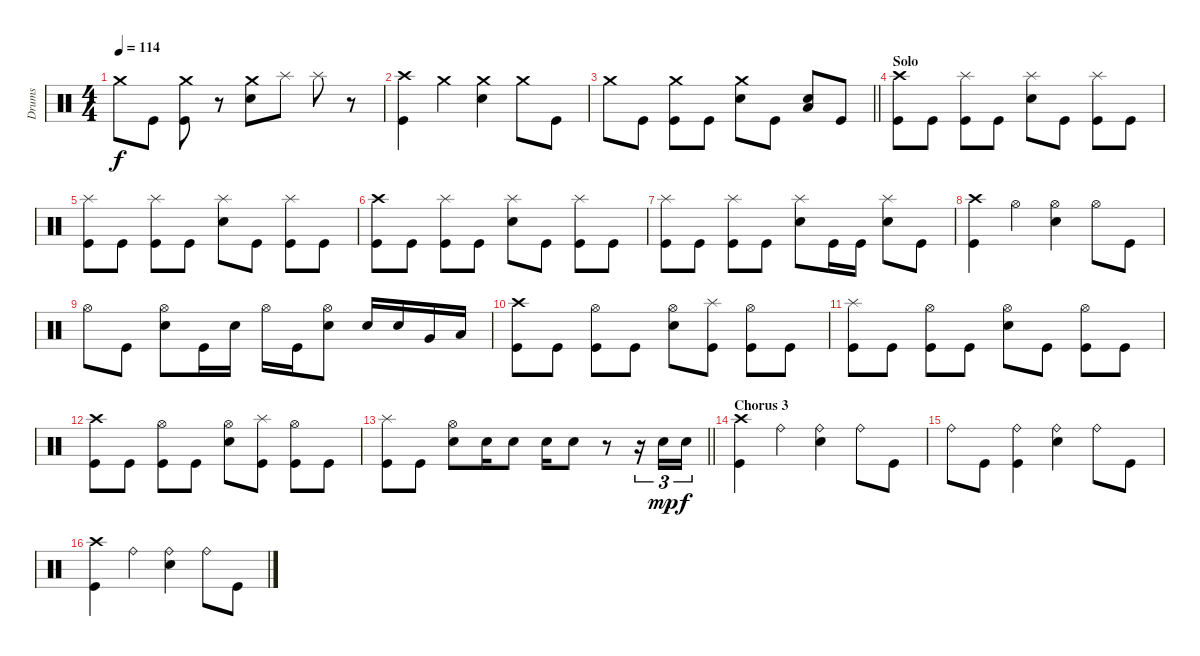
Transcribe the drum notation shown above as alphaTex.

\track ("Drums" "Drums") {instrument percussion}
\staff {score}
\articulation defaults
\ts (4 4)
\tempo 114
\clef neutral
\ks c "Crash medium (hit)".8{dy f} "Kick (hit)".8
("Crash medium (hit)" "Kick (hit)").8 r.8 ("Crash medium (hit)" "Electric Snare (hit)").8 "Splash (hit)".8 "Splash (hit)".8 r.8 |
("Crash high (hit)" "Kick (hit)").4 "Crash medium (hit)".4 ("Crash medium (hit)" "Electric Snare (hit)").4 "Crash medium (hit)".8 "Kick (hit)".8 |
\barLineRight lightlight "Crash medium (hit)".8 "Kick (hit)".8
("Crash medium (hit)" "Kick (hit)").8 "Kick (hit)".8 ("Crash medium (hit)" "Electric Snare (hit)").8 "Kick (hit)".8 ("Electric Snare (hit)" "Low Floor Tom (hit)").8 "Kick (hit)".8 |
\section ("" "Solo")
("Crash high (hit)" "Kick (hit)").8 "Kick (hit)".8 ("Splash (hit)" "Kick (hit)").8 "Kick (hit)".8 ("Splash (hit)" "Electric Snare (hit)").8 "Kick (hit)".8 ("Splash (hit)" "Kick (hit)").8 "Kick (hit)".8 |
("Splash (hit)" "Kick (hit)").8 "Kick (hit)".8 ("Splash (hit)" "Kick (hit)").8 "Kick (hit)".8 ("Splash (hit)" "Electric Snare (hit)").8 "Kick (hit)".8 ("Splash (hit)" "Kick (hit)").8 "Kick (hit)".8 |
("Crash high (hit)" "Kick (hit)").8 "Kick (hit)".8 ("Splash (hit)" "Kick (hit)").8 "Kick (hit)".8 ("Splash (hit)" "Electric Snare (hit)").8 "Kick (hit)".8 ("Splash (hit)" "Kick (hit)").8 "Kick (hit)".8 |
("Splash (hit)" "Kick (hit)").8 "Kick (hit)".8 ("Splash (hit)" "Kick (hit)").8 "Kick (hit)".8 ("Splash (hit)" "Electric Snare (hit)").8 "Kick (hit)".16 "Kick (hit)".16 ("Splash (hit)" "Electric Snare (hit)").8 "Kick (hit)".8 |
("Crash high (hit)" "Kick (hit)").4 "Hi-Hat (open)".4 ("Hi-Hat (open)" "Electric Snare (hit)").4 "Hi-Hat (open)".8 "Kick (hit)".8 |
"Hi-Hat (open)".8 "Kick (hit)".8 ("Hi-Hat (open)" "Electric Snare (hit)").8 "Kick (hit)".16 "Electric Snare (hit)".16 "Hi-Hat (open)".16 "Kick (hit)".16 ("Hi-Hat (open)" "Electric Snare (hit)").8 "Electric Snare (hit)".16 "Electric Snare (hit)".16 "Very Low Tom (hit)".16 "Low Floor Tom (hit)".16 |
("Crash high (hit)" "Kick (hit)").8 "Kick (hit)".8 ("Hi-Hat (open)" "Kick (hit)").8 "Kick (hit)".8 ("Hi-Hat (open)" "Electric Snare (hit)").8 ("Splash (hit)" "Kick (hit)").8 ("Hi-Hat (open)" "Kick (hit)").8 "Kick (hit)".8 |
("Splash (hit)" "Kick (hit)").8 "Kick (hit)".8 ("Hi-Hat (open)" "Kick (hit)").8 "Kick (hit)".8 ("Hi-Hat (open)" "Electric Snare (hit)").8 "Kick (hit)".8 ("Hi-Hat (open)" "Kick (hit)").8 "Kick (hit)".8 |
("Crash high (hit)" "Kick (hit)").8 "Kick (hit)".8 ("Hi-Hat (open)" "Kick (hit)").8 "Kick (hit)".8 ("Hi-Hat (open)" "Electric Snare (hit)").8 ("Splash (hit)" "Kick (hit)").8 ("Hi-Hat (open)" "Kick (hit)").8 "Kick (hit)".8 |
\barLineRight lightlight
("Splash (hit)" "Kick (hit)").8 "Kick (hit)".8 ("Hi-Hat (open)" "Electric Snare (hit)").8 "Electric Snare (hit)".16 "Electric Snare (hit)".8 "Electric Snare (hit)".16 "Electric Snare (hit)".8 r.8 r.16{tu (3 2)} "Electric Snare (hit)".16{tu (3 2) dy mp} "Electric Snare (hit)".16{tu (3 2) dy f} |
\section ("" "Chorus 3")
("Crash high (hit)" "Kick (hit)").4 "Ride (bell)".4 ("Ride (bell)" "Electric Snare (hit)").4 "Ride (bell)".8 "Kick (hit)".8 |
"Ride (bell)".8 "Kick (hit)".8 ("Ride (bell)" "Kick (hit)").4 ("Ride (bell)" "Electric Snare (hit)").4 "Ride (bell)".8 "Kick (hit)".8 |
("Crash high (hit)" "Kick (hit)").4 "Ride (bell)".4 ("Ride (bell)" "Electric Snare (hit)").4 "Ride (bell)".8 "Kick (hit)".8
